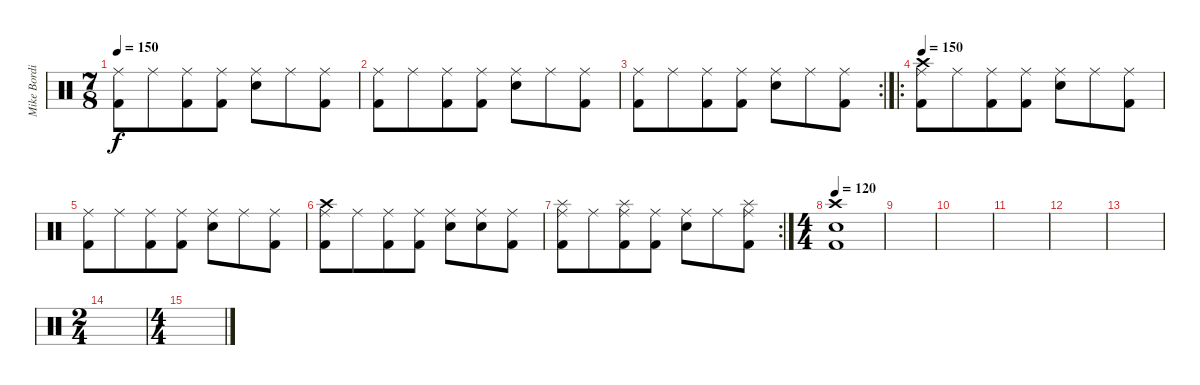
\track ("Mike Bordin" "Mike Bordi") {instrument percussion}
\staff {score}
\articulation defaults
\ts (7 8)
\tempo 150
\clef neutral
\ks c
("Ride (middle)" "Kick (hit) 2").8{dy f} "Ride (middle)".8 ("Ride (middle)" "Kick (hit) 2").8 ("Ride (middle)" "Kick (hit) 2").8 ("Ride (middle)" "Electric Snare (hit)").8 "Ride (middle)".8 ("Ride (middle)" "Kick (hit) 2").8 |
("Ride (middle)" "Kick (hit) 2").8 "Ride (middle)".8 ("Ride (middle)" "Kick (hit) 2").8 ("Ride (middle)" "Kick (hit) 2").8 ("Ride (middle)" "Electric Snare (hit)").8 "Ride (middle)".8 ("Ride (middle)" "Kick (hit) 2").8 |
\rc 2
("Ride (middle)" "Kick (hit) 2").8 "Ride (middle)".8 ("Ride (middle)" "Kick (hit) 2").8 ("Ride (middle)" "Kick (hit) 2").8 ("Ride (middle)" "Electric Snare (hit)").8 "Ride (middle)".8 ("Ride (middle)" "Kick (hit) 2").8 |
\ro
\tempo 150
("Crash high (hit)" "Ride (middle)" "Kick (hit) 2").8 "Ride (middle)".8 ("Ride (middle)" "Kick (hit) 2").8 ("Ride (middle)" "Kick (hit) 2").8 ("Ride (middle)" "Electric Snare (hit)").8 "Ride (middle)".8 ("Ride (middle)" "Kick (hit) 2").8 |
("Ride (middle)" "Kick (hit) 2").8 "Ride (middle)".8 ("Ride (middle)" "Kick (hit) 2").8 ("Ride (middle)" "Kick (hit) 2").8 ("Ride (middle)" "Electric Snare (hit)").8 "Ride (middle)".8 ("Ride (middle)" "Kick (hit) 2").8 |
("Crash high (hit)" "Ride (middle)" "Kick (hit) 2").8 "Ride (middle)".8 ("Ride (middle)" "Kick (hit) 2").8 ("Ride (middle)" "Kick (hit) 2").8 ("Ride (middle)" "Electric Snare (hit)").8 ("Ride (middle)" "Electric Snare (hit)").8 ("Ride (middle)" "Kick (hit) 2").8 |
\rc 2
("Splash (hit)" "Ride (middle)" "Kick (hit) 2").8 "Ride (middle)".8 ("Splash (hit)" "Ride (middle)" "Kick (hit) 2").8 ("Ride (middle)" "Kick (hit) 2").8 ("Ride (middle)" "Electric Snare (hit)").8 "Ride (middle)".8 ("Splash (hit)" "Ride (middle)" "Kick (hit) 2").8 |
\ts (4 4)
\tempo 120
("Crash high (hit)" "Electric Snare (hit)" "Kick (hit) 2").1 |
|
|
|
|
|
\ts (2 4)
|
\ts (4 4)
